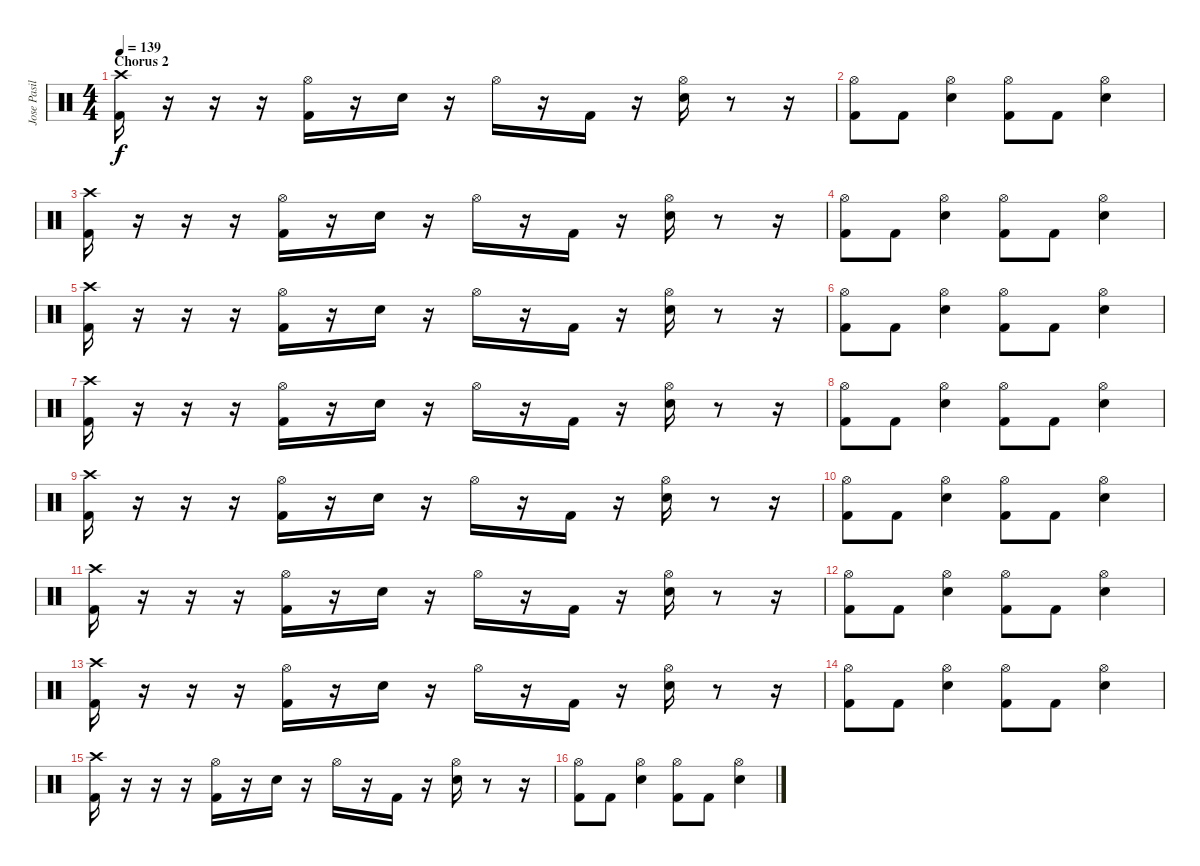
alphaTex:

\track ("Jose Pasillas - Drums" "Jose Pasil") {instrument percussion}
\staff {score}
\articulation defaults
\ts (4 4)
\section ("" "Chorus 2")
\tempo 139
\clef neutral
\ks c
("Crash high (hit)" "Kick (hit) 2").16{dy f} r.16 r.16 r.16 ("Hi-Hat (open)" "Kick (hit) 2").16 r.16 "Electric Snare (hit)".16 r.16 "Hi-Hat (open)".16 r.16 "Kick (hit) 2".16 r.16 ("Hi-Hat (open)" "Electric Snare (hit)").16 r.8 r.16 |
("Hi-Hat (open)" "Kick (hit) 2").8 "Kick (hit) 2".8 ("Hi-Hat (open)" "Electric Snare (hit)").4 ("Hi-Hat (open)" "Kick (hit) 2").8 "Kick (hit) 2".8 ("Hi-Hat (open)" "Electric Snare (hit)").4 |
("Crash high (hit)" "Kick (hit) 2").16 r.16 r.16 r.16 ("Hi-Hat (open)" "Kick (hit) 2").16 r.16 "Electric Snare (hit)".16 r.16 "Hi-Hat (open)".16 r.16 "Kick (hit) 2".16 r.16 ("Hi-Hat (open)" "Electric Snare (hit)").16 r.8 r.16 |
("Hi-Hat (open)" "Kick (hit) 2").8 "Kick (hit) 2".8 ("Hi-Hat (open)" "Electric Snare (hit)").4 ("Hi-Hat (open)" "Kick (hit) 2").8 "Kick (hit) 2".8 ("Hi-Hat (open)" "Electric Snare (hit)").4 |
("Crash high (hit)" "Kick (hit) 2").16 r.16 r.16 r.16 ("Hi-Hat (open)" "Kick (hit) 2").16 r.16 "Electric Snare (hit)".16 r.16 "Hi-Hat (open)".16 r.16 "Kick (hit) 2".16 r.16 ("Hi-Hat (open)" "Electric Snare (hit)").16 r.8 r.16 |
("Hi-Hat (open)" "Kick (hit) 2").8 "Kick (hit) 2".8 ("Hi-Hat (open)" "Electric Snare (hit)").4 ("Hi-Hat (open)" "Kick (hit) 2").8 "Kick (hit) 2".8 ("Hi-Hat (open)" "Electric Snare (hit)").4 |
("Crash high (hit)" "Kick (hit) 2").16 r.16 r.16 r.16 ("Hi-Hat (open)" "Kick (hit) 2").16 r.16 "Electric Snare (hit)".16 r.16 "Hi-Hat (open)".16 r.16 "Kick (hit) 2".16 r.16 ("Hi-Hat (open)" "Electric Snare (hit)").16 r.8 r.16 |
("Hi-Hat (open)" "Kick (hit) 2").8 "Kick (hit) 2".8 ("Hi-Hat (open)" "Electric Snare (hit)").4 ("Hi-Hat (open)" "Kick (hit) 2").8 "Kick (hit) 2".8 ("Hi-Hat (open)" "Electric Snare (hit)").4 |
("Crash high (hit)" "Kick (hit) 2").16 r.16 r.16 r.16 ("Hi-Hat (open)" "Kick (hit) 2").16 r.16 "Electric Snare (hit)".16 r.16 "Hi-Hat (open)".16 r.16 "Kick (hit) 2".16 r.16 ("Hi-Hat (open)" "Electric Snare (hit)").16 r.8 r.16 |
("Hi-Hat (open)" "Kick (hit) 2").8 "Kick (hit) 2".8 ("Hi-Hat (open)" "Electric Snare (hit)").4 ("Hi-Hat (open)" "Kick (hit) 2").8 "Kick (hit) 2".8 ("Hi-Hat (open)" "Electric Snare (hit)").4 |
("Crash high (hit)" "Kick (hit) 2").16 r.16 r.16 r.16 ("Hi-Hat (open)" "Kick (hit) 2").16 r.16 "Electric Snare (hit)".16 r.16 "Hi-Hat (open)".16 r.16 "Kick (hit) 2".16 r.16 ("Hi-Hat (open)" "Electric Snare (hit)").16 r.8 r.16 |
("Hi-Hat (open)" "Kick (hit) 2").8 "Kick (hit) 2".8 ("Hi-Hat (open)" "Electric Snare (hit)").4 ("Hi-Hat (open)" "Kick (hit) 2").8 "Kick (hit) 2".8 ("Hi-Hat (open)" "Electric Snare (hit)").4 |
("Crash high (hit)" "Kick (hit) 2").16 r.16 r.16 r.16 ("Hi-Hat (open)" "Kick (hit) 2").16 r.16 "Electric Snare (hit)".16 r.16 "Hi-Hat (open)".16 r.16 "Kick (hit) 2".16 r.16 ("Hi-Hat (open)" "Electric Snare (hit)").16 r.8 r.16 |
("Hi-Hat (open)" "Kick (hit) 2").8 "Kick (hit) 2".8 ("Hi-Hat (open)" "Electric Snare (hit)").4 ("Hi-Hat (open)" "Kick (hit) 2").8 "Kick (hit) 2".8 ("Hi-Hat (open)" "Electric Snare (hit)").4 |
("Crash high (hit)" "Kick (hit) 2").16 r.16 r.16 r.16 ("Hi-Hat (open)" "Kick (hit) 2").16 r.16 "Electric Snare (hit)".16 r.16 "Hi-Hat (open)".16 r.16 "Kick (hit) 2".16 r.16 ("Hi-Hat (open)" "Electric Snare (hit)").16 r.8 r.16 |
("Hi-Hat (open)" "Kick (hit) 2").8 "Kick (hit) 2".8 ("Hi-Hat (open)" "Electric Snare (hit)").4 ("Hi-Hat (open)" "Kick (hit) 2").8 "Kick (hit) 2".8 ("Hi-Hat (open)" "Electric Snare (hit)").4
